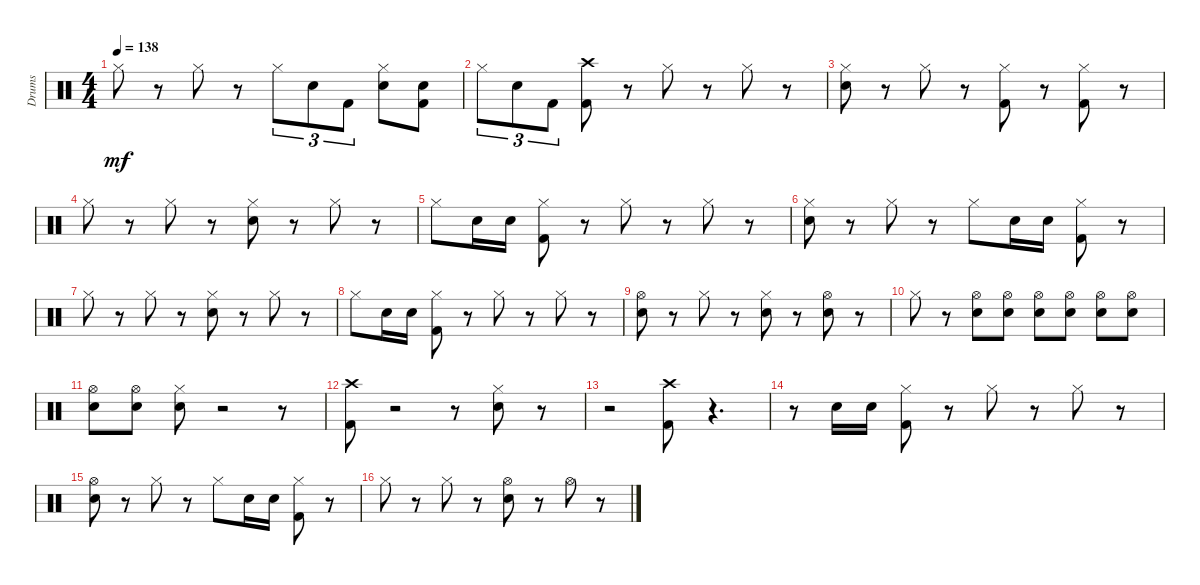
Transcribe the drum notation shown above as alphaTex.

\track ("Drums" "Drums") {instrument percussion}
\staff {score}
\articulation defaults
\ts (4 4)
\tempo 138
\clef neutral
\ks c "Hi-Hat (closed)".8{dy mf}
r.8 "Hi-Hat (closed)".8 r.8 "Hi-Hat (closed)".8{tu (3 2)} "Electric Snare (hit)".8{tu (3 2)} "Kick (hit) 2".8{tu (3 2)} ("Electric Snare (hit)" "Hi-Hat (closed)").8 ("Kick (hit) 2" "Electric Snare (hit)").8 |
"Hi-Hat (closed)".8{tu (3 2)} "Electric Snare (hit)".8{tu (3 2)} "Kick (hit) 2".8{tu (3 2)} ("Kick (hit) 2" "Crash high (hit)").8 r.8 "Hi-Hat (closed)".8 r.8 "Hi-Hat (closed)".8 r.8 |
("Electric Snare (hit)" "Hi-Hat (closed)").8 r.8 "Hi-Hat (closed)".8 r.8 ("Kick (hit) 2" "Hi-Hat (closed)").8 r.8 ("Kick (hit) 2" "Hi-Hat (closed)").8 r.8 |
"Hi-Hat (closed)".8 r.8 "Hi-Hat (closed)".8 r.8 ("Electric Snare (hit)" "Hi-Hat (closed)").8 r.8 "Hi-Hat (closed)".8 r.8 |
"Hi-Hat (closed)".8 "Electric Snare (hit)".16 "Electric Snare (hit)".16 ("Kick (hit) 2" "Hi-Hat (closed)").8 r.8 "Hi-Hat (closed)".8 r.8 "Hi-Hat (closed)".8 r.8 |
("Electric Snare (hit)" "Hi-Hat (closed)").8 r.8 "Hi-Hat (closed)".8 r.8 "Hi-Hat (closed)".8 "Electric Snare (hit)".16 "Electric Snare (hit)".16 ("Kick (hit) 2" "Hi-Hat (closed)").8 r.8 |
"Hi-Hat (closed)".8 r.8 "Hi-Hat (closed)".8 r.8 ("Electric Snare (hit)" "Hi-Hat (closed)").8 r.8 "Hi-Hat (closed)".8 r.8 |
"Hi-Hat (closed)".8 "Electric Snare (hit)".16 "Electric Snare (hit)".16 ("Kick (hit) 2" "Hi-Hat (closed)").8 r.8 "Hi-Hat (closed)".8 r.8 "Hi-Hat (closed)".8 r.8 |
("Electric Snare (hit)" "Hi-Hat (open)").8 r.8 "Hi-Hat (closed)".8 r.8 ("Electric Snare (hit)" "Hi-Hat (closed)").8 r.8 ("Electric Snare (hit)" "Hi-Hat (open)").8 r.8 |
"Hi-Hat (closed)".8 r.8 ("Electric Snare (hit)" "Hi-Hat (open)").8 ("Electric Snare (hit)" "Hi-Hat (open)").8 ("Electric Snare (hit)" "Hi-Hat (open)").8 ("Electric Snare (hit)" "Hi-Hat (open)").8 ("Electric Snare (hit)" "Hi-Hat (open)").8 ("Electric Snare (hit)" "Hi-Hat (open)").8 |
("Electric Snare (hit)" "Hi-Hat (open)").8 ("Electric Snare (hit)" "Hi-Hat (open)").8 ("Electric Snare (hit)" "Hi-Hat (closed)").8 r.2 r.8 |
("Kick (hit) 2" "Crash high (hit)").8 r.2 r.8 ("Electric Snare (hit)" "Hi-Hat (closed)").8 r.8 |
r.2 ("Kick (hit) 2" "Crash high (hit)").8 r.4{d} |
r.8 "Electric Snare (hit)".16 "Electric Snare (hit)".16 ("Kick (hit) 2" "Hi-Hat (closed)").8 r.8 "Hi-Hat (closed)".8 r.8 "Hi-Hat (closed)".8 r.8 |
("Electric Snare (hit)" "Hi-Hat (open)").8 r.8 "Hi-Hat (closed)".8 r.8 "Hi-Hat (closed)".8 "Electric Snare (hit)".16 "Electric Snare (hit)".16 ("Kick (hit) 2" "Hi-Hat (closed)").8 r.8 |
"Hi-Hat (closed)".8 r.8 "Hi-Hat (closed)".8 r.8 ("Electric Snare (hit)" "Hi-Hat (open)").8 r.8 "Hi-Hat (open)".8 r.8
